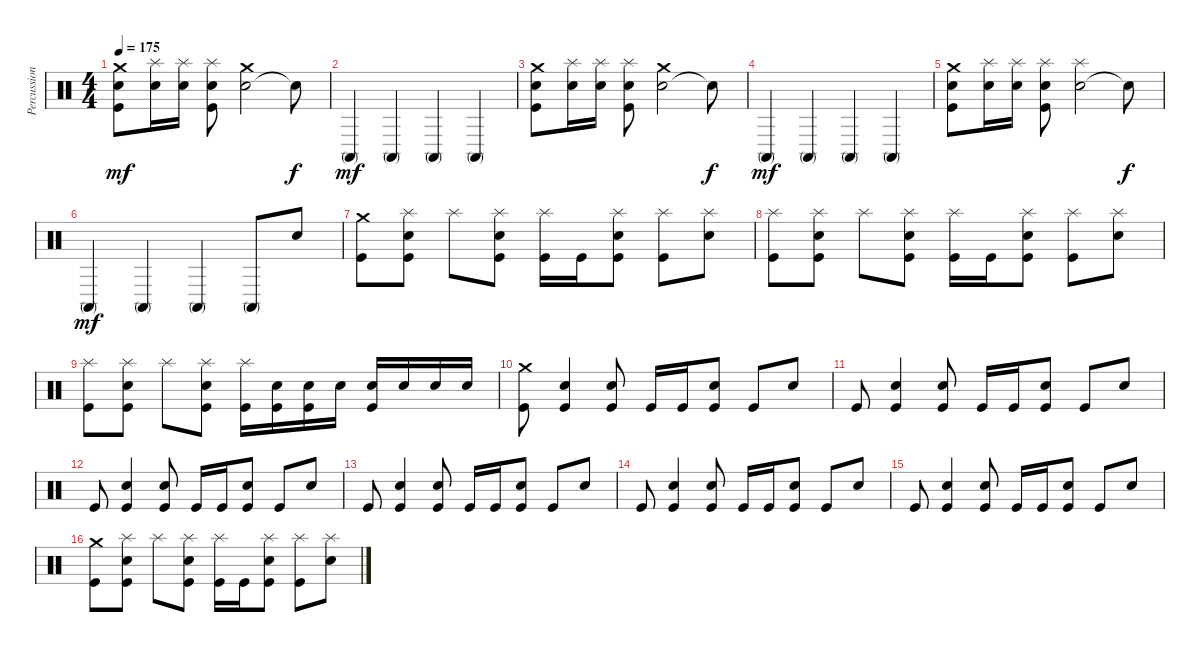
\track ("Percussioni" "Percussion") {instrument percussion}
\staff {score}
\articulation defaults
\ts (4 4)
\tempo 175
\clef neutral
\ks c
("Electric Snare (hit)" "Crash medium (hit)" "Kick (hit)").8{dy mf} ("Electric Snare (hit)" "Splash (hit)").16 ("Electric Snare (hit)" "Splash (hit)").16 ("Electric Snare (hit)" "Splash (hit)" "Kick (hit)").8 ("Electric Snare (hit)" "Crash medium (hit)").2 "Snare (hit)"{t}.8{dy f} |
"Conga high (mute)".4{dy mf} "Conga high (mute)".4 "Conga high (mute)".4 "Conga high (mute)".4 |
("Electric Snare (hit)" "Crash medium (hit)" "Kick (hit)").8 ("Electric Snare (hit)" "Splash (hit)").16 ("Electric Snare (hit)" "Splash (hit)").16 ("Electric Snare (hit)" "Splash (hit)" "Kick (hit)").8 ("Electric Snare (hit)" "Crash medium (hit)").2 "Snare (hit)"{t}.8{dy f} |
"Conga high (mute)".4{dy mf} "Conga high (mute)".4 "Conga high (mute)".4 "Conga high (mute)".4 |
("Electric Snare (hit)" "Crash medium (hit)" "Kick (hit)").8 ("Electric Snare (hit)" "Splash (hit)").16 ("Electric Snare (hit)" "Splash (hit)").16 ("Electric Snare (hit)" "Splash (hit)" "Kick (hit)").8 ("Electric Snare (hit)" "Splash (hit)").2 "Snare (hit)"{t}.8{dy f} |
"Conga high (mute)".4{dy mf} "Conga high (mute)".4 "Conga high (mute)".4 "Conga high (mute)".8 "Electric Snare (hit)".8 |
("Crash medium (hit)" "Kick (hit)").8 ("Electric Snare (hit)" "Splash (hit)" "Kick (hit)").8 "Splash (hit)".8 ("Electric Snare (hit)" "Splash (hit)" "Kick (hit)").8 ("Splash (hit)" "Kick (hit)").16 "Kick (hit)".16 ("Electric Snare (hit)" "Splash (hit)" "Kick (hit)").8 ("Splash (hit)" "Kick (hit)").8 ("Electric Snare (hit)" "Splash (hit)").8 |
("Splash (hit)" "Kick (hit)").8 ("Electric Snare (hit)" "Splash (hit)" "Kick (hit)").8 "Splash (hit)".8 ("Electric Snare (hit)" "Splash (hit)" "Kick (hit)").8 ("Splash (hit)" "Kick (hit)").16 "Kick (hit)".16 ("Electric Snare (hit)" "Splash (hit)" "Kick (hit)").8 ("Splash (hit)" "Kick (hit)").8 ("Electric Snare (hit)" "Splash (hit)").8 |
("Splash (hit)" "Kick (hit)").8 ("Electric Snare (hit)" "Splash (hit)" "Kick (hit)").8 "Splash (hit)".8 ("Electric Snare (hit)" "Splash (hit)" "Kick (hit)").8 ("Splash (hit)" "Kick (hit)").16 ("Electric Snare (hit)" "Kick (hit)").16 ("Electric Snare (hit)" "Kick (hit)").16 "Electric Snare (hit)".16 ("Electric Snare (hit)" "Kick (hit)").16 "Electric Snare (hit)".16 "Electric Snare (hit)".16 "Electric Snare (hit)".16 |
("Crash medium (hit)" "Kick (hit)").8 ("Electric Snare (hit)" "Kick (hit)").4 ("Electric Snare (hit)" "Kick (hit)").8 "Kick (hit)".16 "Kick (hit)".16 ("Electric Snare (hit)" "Kick (hit)").8 "Kick (hit)".8 "Electric Snare (hit)".8 |
"Kick (hit)".8 ("Electric Snare (hit)" "Kick (hit)").4 ("Electric Snare (hit)" "Kick (hit)").8 "Kick (hit)".16 "Kick (hit)".16 ("Electric Snare (hit)" "Kick (hit)").8 "Kick (hit)".8 "Electric Snare (hit)".8 |
"Kick (hit)".8 ("Electric Snare (hit)" "Kick (hit)").4 ("Electric Snare (hit)" "Kick (hit)").8 "Kick (hit)".16 "Kick (hit)".16 ("Electric Snare (hit)" "Kick (hit)").8 "Kick (hit)".8 "Electric Snare (hit)".8 |
"Kick (hit)".8 ("Electric Snare (hit)" "Kick (hit)").4 ("Electric Snare (hit)" "Kick (hit)").8 "Kick (hit)".16 "Kick (hit)".16 ("Electric Snare (hit)" "Kick (hit)").8 "Kick (hit)".8 "Electric Snare (hit)".8 |
"Kick (hit)".8 ("Electric Snare (hit)" "Kick (hit)").4 ("Electric Snare (hit)" "Kick (hit)").8 "Kick (hit)".16 "Kick (hit)".16 ("Electric Snare (hit)" "Kick (hit)").8 "Kick (hit)".8 "Electric Snare (hit)".8 |
"Kick (hit)".8 ("Electric Snare (hit)" "Kick (hit)").4 ("Electric Snare (hit)" "Kick (hit)").8 "Kick (hit)".16 "Kick (hit)".16 ("Electric Snare (hit)" "Kick (hit)").8 "Kick (hit)".8 "Electric Snare (hit)".8 |
("Crash medium (hit)" "Kick (hit)").8 ("Electric Snare (hit)" "Splash (hit)" "Kick (hit)").8 "Splash (hit)".8 ("Electric Snare (hit)" "Splash (hit)" "Kick (hit)").8 ("Splash (hit)" "Kick (hit)").16 "Kick (hit)".16 ("Electric Snare (hit)" "Splash (hit)" "Kick (hit)").8 ("Splash (hit)" "Kick (hit)").8 ("Electric Snare (hit)" "Splash (hit)").8
